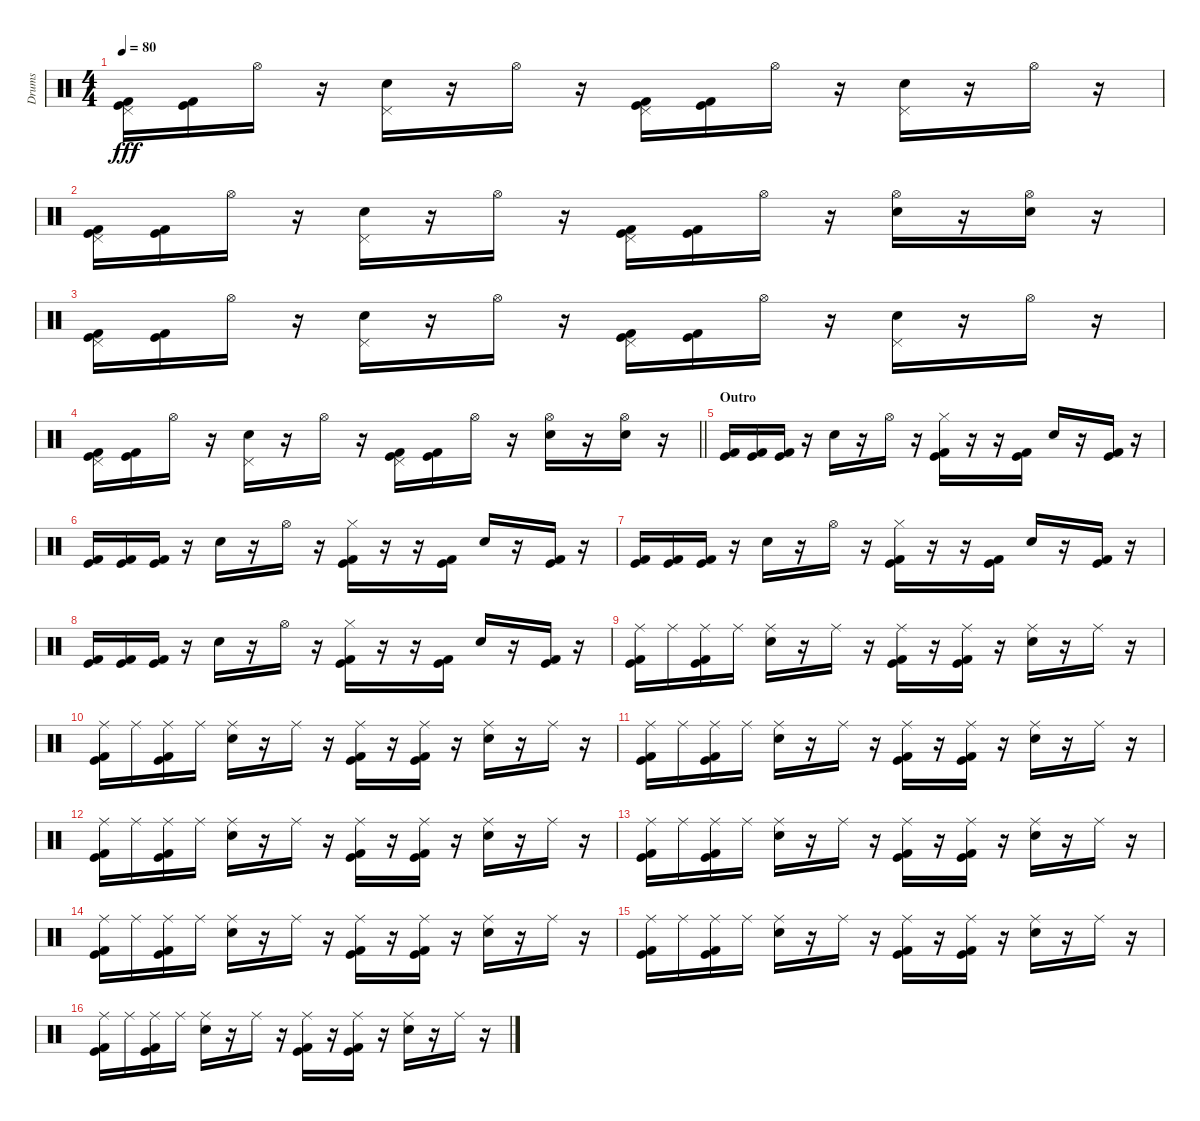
\track ("Drums" "Drums") {instrument percussion}
\staff {score}
\articulation defaults
\ts (4 4)
\tempo 80
\clef neutral
\ks c
("Pedal Hi-Hat (hit)" "Kick (hit)" "Kick (hit) 2").16{dy fff} ("Kick (hit)" "Kick (hit) 2").16 "Hi-Hat (open)".16 r.16 ("Pedal Hi-Hat (hit)" "Snare (hit) 2").16 r.16 "Hi-Hat (open)".16 r.16 ("Pedal Hi-Hat (hit)" "Kick (hit)" "Kick (hit) 2").16 ("Kick (hit)" "Kick (hit) 2").16 "Hi-Hat (open)".16 r.16 ("Pedal Hi-Hat (hit)" "Snare (hit) 2").16 r.16 "Hi-Hat (open)".16 r.16 |
("Pedal Hi-Hat (hit)" "Kick (hit)" "Kick (hit) 2").16 ("Kick (hit)" "Kick (hit) 2").16 "Hi-Hat (open)".16 r.16 ("Pedal Hi-Hat (hit)" "Snare (hit) 2").16 r.16 "Hi-Hat (open)".16 r.16 ("Pedal Hi-Hat (hit)" "Kick (hit)" "Kick (hit) 2").16 ("Kick (hit)" "Kick (hit) 2").16 "Hi-Hat (open)".16 r.16 ("Hi-Hat (open)" "Snare (hit) 2").16 r.16 ("Hi-Hat (open)" "Snare (hit) 2").16 r.16 |
("Pedal Hi-Hat (hit)" "Kick (hit)" "Kick (hit) 2").16 ("Kick (hit)" "Kick (hit) 2").16 "Hi-Hat (open)".16 r.16 ("Pedal Hi-Hat (hit)" "Snare (hit) 2").16 r.16 "Hi-Hat (open)".16 r.16 ("Pedal Hi-Hat (hit)" "Kick (hit)" "Kick (hit) 2").16 ("Kick (hit)" "Kick (hit) 2").16 "Hi-Hat (open)".16 r.16 ("Pedal Hi-Hat (hit)" "Snare (hit) 2").16 r.16 "Hi-Hat (open)".16 r.16 |
\barLineRight lightlight
("Pedal Hi-Hat (hit)" "Kick (hit)" "Kick (hit) 2").16 ("Kick (hit)" "Kick (hit) 2").16 "Hi-Hat (open)".16 r.16 ("Pedal Hi-Hat (hit)" "Snare (hit) 2").16 r.16 "Hi-Hat (open)".16 r.16 ("Pedal Hi-Hat (hit)" "Kick (hit)" "Kick (hit) 2").16 ("Kick (hit)" "Kick (hit) 2").16 "Hi-Hat (open)".16 r.16 ("Hi-Hat (open)" "Snare (hit) 2").16 r.16 ("Hi-Hat (open)" "Snare (hit) 2").16 r.16 |
\section ("" "Outro")
("Kick (hit)" "Kick (hit) 2").16 ("Kick (hit)" "Kick (hit) 2").16 ("Kick (hit)" "Kick (hit) 2").16 r.16 "Snare (hit) 2".16 r.16 "Hi-Hat (open)".16 r.16 ("Hi-Hat (closed)" "Kick (hit)" "Kick (hit) 2").16 r.16 r.16 ("Kick (hit)" "Kick (hit) 2").16 "Snare (hit) 2".16 r.16 ("Kick (hit)" "Kick (hit) 2").16 r.16 |
("Kick (hit)" "Kick (hit) 2").16 ("Kick (hit)" "Kick (hit) 2").16 ("Kick (hit)" "Kick (hit) 2").16 r.16 "Snare (hit) 2".16 r.16 "Hi-Hat (open)".16 r.16 ("Hi-Hat (closed)" "Kick (hit)" "Kick (hit) 2").16 r.16 r.16 ("Kick (hit)" "Kick (hit) 2").16 "Snare (hit) 2".16 r.16 ("Kick (hit)" "Kick (hit) 2").16 r.16 |
("Kick (hit)" "Kick (hit) 2").16 ("Kick (hit)" "Kick (hit) 2").16 ("Kick (hit)" "Kick (hit) 2").16 r.16 "Snare (hit) 2".16 r.16 "Hi-Hat (open)".16 r.16 ("Hi-Hat (closed)" "Kick (hit)" "Kick (hit) 2").16 r.16 r.16 ("Kick (hit)" "Kick (hit) 2").16 "Snare (hit) 2".16 r.16 ("Kick (hit)" "Kick (hit) 2").16 r.16 |
("Kick (hit)" "Kick (hit) 2").16 ("Kick (hit)" "Kick (hit) 2").16 ("Kick (hit)" "Kick (hit) 2").16 r.16 "Snare (hit) 2".16 r.16 "Hi-Hat (open)".16 r.16 ("Hi-Hat (closed)" "Kick (hit)" "Kick (hit) 2").16 r.16 r.16 ("Kick (hit)" "Kick (hit) 2").16 "Snare (hit) 2".16 r.16 ("Kick (hit)" "Kick (hit) 2").16 r.16 |
("Ride (middle)" "Kick (hit)" "Kick (hit) 2").16 "Ride (middle)".16 ("Ride (middle)" "Kick (hit)" "Kick (hit) 2").16 "Ride (middle)".16 ("Ride (middle)" "Snare (hit) 2").16 r.16 "Ride (middle)".16 r.16 ("Ride (middle)" "Kick (hit)" "Kick (hit) 2").16 r.16 ("Ride (middle)" "Kick (hit)" "Kick (hit) 2").16 r.16 ("Ride (middle)" "Snare (hit) 2").16 r.16 "Ride (middle)".16 r.16 |
("Ride (middle)" "Kick (hit)" "Kick (hit) 2").16 "Ride (middle)".16 ("Ride (middle)" "Kick (hit)" "Kick (hit) 2").16 "Ride (middle)".16 ("Ride (middle)" "Snare (hit) 2").16 r.16 "Ride (middle)".16 r.16 ("Ride (middle)" "Kick (hit)" "Kick (hit) 2").16 r.16 ("Ride (middle)" "Kick (hit)" "Kick (hit) 2").16 r.16 ("Ride (middle)" "Snare (hit) 2").16 r.16 "Ride (middle)".16 r.16 |
("Ride (middle)" "Kick (hit)" "Kick (hit) 2").16 "Ride (middle)".16 ("Ride (middle)" "Kick (hit)" "Kick (hit) 2").16 "Ride (middle)".16 ("Ride (middle)" "Snare (hit) 2").16 r.16 "Ride (middle)".16 r.16 ("Ride (middle)" "Kick (hit)" "Kick (hit) 2").16 r.16 ("Ride (middle)" "Kick (hit)" "Kick (hit) 2").16 r.16 ("Ride (middle)" "Snare (hit) 2").16 r.16 "Ride (middle)".16 r.16 |
("Ride (middle)" "Kick (hit)" "Kick (hit) 2").16 "Ride (middle)".16 ("Ride (middle)" "Kick (hit)" "Kick (hit) 2").16 "Ride (middle)".16 ("Ride (middle)" "Snare (hit) 2").16 r.16 "Ride (middle)".16 r.16 ("Ride (middle)" "Kick (hit)" "Kick (hit) 2").16 r.16 ("Ride (middle)" "Kick (hit)" "Kick (hit) 2").16 r.16 ("Ride (middle)" "Snare (hit) 2").16 r.16 "Ride (middle)".16 r.16 |
("Ride (middle)" "Kick (hit)" "Kick (hit) 2").16 "Ride (middle)".16 ("Ride (middle)" "Kick (hit)" "Kick (hit) 2").16 "Ride (middle)".16 ("Ride (middle)" "Snare (hit) 2").16 r.16 "Ride (middle)".16 r.16 ("Ride (middle)" "Kick (hit)" "Kick (hit) 2").16 r.16 ("Ride (middle)" "Kick (hit)" "Kick (hit) 2").16 r.16 ("Ride (middle)" "Snare (hit) 2").16 r.16 "Ride (middle)".16 r.16 |
("Ride (middle)" "Kick (hit)" "Kick (hit) 2").16 "Ride (middle)".16 ("Ride (middle)" "Kick (hit)" "Kick (hit) 2").16 "Ride (middle)".16 ("Ride (middle)" "Snare (hit) 2").16 r.16 "Ride (middle)".16 r.16 ("Ride (middle)" "Kick (hit)" "Kick (hit) 2").16 r.16 ("Ride (middle)" "Kick (hit)" "Kick (hit) 2").16 r.16 ("Ride (middle)" "Snare (hit) 2").16 r.16 "Ride (middle)".16 r.16 |
("Ride (middle)" "Kick (hit)" "Kick (hit) 2").16 "Ride (middle)".16 ("Ride (middle)" "Kick (hit)" "Kick (hit) 2").16 "Ride (middle)".16 ("Ride (middle)" "Snare (hit) 2").16 r.16 "Ride (middle)".16 r.16 ("Ride (middle)" "Kick (hit)" "Kick (hit) 2").16 r.16 ("Ride (middle)" "Kick (hit)" "Kick (hit) 2").16 r.16 ("Ride (middle)" "Snare (hit) 2").16 r.16 "Ride (middle)".16 r.16 |
("Ride (middle)" "Kick (hit)" "Kick (hit) 2").16 "Ride (middle)".16 ("Ride (middle)" "Kick (hit)" "Kick (hit) 2").16 "Ride (middle)".16 ("Ride (middle)" "Snare (hit) 2").16 r.16 "Ride (middle)".16 r.16 ("Ride (middle)" "Kick (hit)" "Kick (hit) 2").16 r.16 ("Ride (middle)" "Kick (hit)" "Kick (hit) 2").16 r.16 ("Ride (middle)" "Snare (hit) 2").16 r.16 "Ride (middle)".16 r.16
